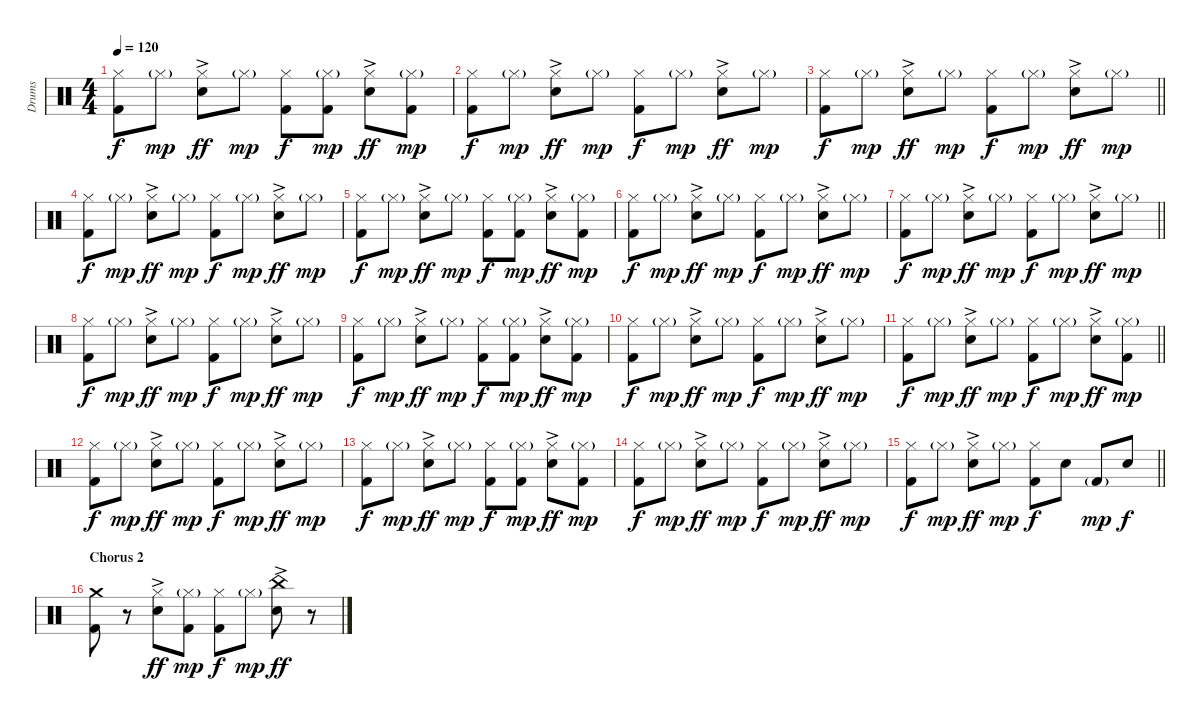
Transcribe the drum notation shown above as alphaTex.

\track ("Drums" "Drums") {instrument percussion}
\staff {score}
\articulation defaults
\ts (4 4)
\tempo 120
\clef neutral
\ks c
("Hi-Hat (closed)" "Kick (hit) 2").8{dy f} "Hi-Hat (closed)"{g}.8{dy mp} ("Hi-Hat (closed)" "Snare (hit) 2"{ac}).8{dy ff} "Hi-Hat (closed)"{g}.8{dy mp} ("Hi-Hat (closed)" "Kick (hit) 2").8{dy f} ("Hi-Hat (closed)"{g} "Kick (hit) 2").8{dy mp} ("Hi-Hat (closed)" "Snare (hit) 2"{ac}).8{dy ff} ("Hi-Hat (closed)"{g} "Kick (hit) 2").8{dy mp} |
("Hi-Hat (closed)" "Kick (hit) 2").8{dy f} "Hi-Hat (closed)"{g}.8{dy mp} ("Hi-Hat (closed)" "Snare (hit) 2"{ac}).8{dy ff} "Hi-Hat (closed)"{g}.8{dy mp} ("Hi-Hat (closed)" "Kick (hit) 2").8{dy f} "Hi-Hat (closed)"{g}.8{dy mp} ("Hi-Hat (closed)" "Snare (hit) 2"{ac}).8{dy ff} "Hi-Hat (closed)"{g}.8{dy mp} |
\barLineRight lightlight
("Hi-Hat (closed)" "Kick (hit) 2").8{dy f} "Hi-Hat (closed)"{g}.8{dy mp} ("Hi-Hat (closed)" "Snare (hit) 2"{ac}).8{dy ff} "Hi-Hat (closed)"{g}.8{dy mp} ("Hi-Hat (closed)" "Kick (hit) 2").8{dy f} "Hi-Hat (closed)"{g}.8{dy mp} ("Hi-Hat (closed)" "Snare (hit) 2"{ac}).8{dy ff} "Hi-Hat (closed)"{g}.8{dy mp} |
("Hi-Hat (closed)" "Kick (hit) 2").8{dy f} "Hi-Hat (closed)"{g}.8{dy mp} ("Hi-Hat (closed)" "Snare (hit) 2"{ac}).8{dy ff} "Hi-Hat (closed)"{g}.8{dy mp} ("Hi-Hat (closed)" "Kick (hit) 2").8{dy f} "Hi-Hat (closed)"{g}.8{dy mp} ("Hi-Hat (closed)" "Snare (hit) 2"{ac}).8{dy ff} "Hi-Hat (closed)"{g}.8{dy mp} |
("Hi-Hat (closed)" "Kick (hit) 2").8{dy f} "Hi-Hat (closed)"{g}.8{dy mp} ("Hi-Hat (closed)" "Snare (hit) 2"{ac}).8{dy ff} "Hi-Hat (closed)"{g}.8{dy mp} ("Hi-Hat (closed)" "Kick (hit) 2").8{dy f} ("Hi-Hat (closed)"{g} "Kick (hit) 2").8{dy mp} ("Hi-Hat (closed)" "Snare (hit) 2"{ac}).8{dy ff} ("Hi-Hat (closed)"{g} "Kick (hit) 2").8{dy mp} |
("Hi-Hat (closed)" "Kick (hit) 2").8{dy f} "Hi-Hat (closed)"{g}.8{dy mp} ("Hi-Hat (closed)" "Snare (hit) 2"{ac}).8{dy ff} "Hi-Hat (closed)"{g}.8{dy mp} ("Hi-Hat (closed)" "Kick (hit) 2").8{dy f} "Hi-Hat (closed)"{g}.8{dy mp} ("Hi-Hat (closed)" "Snare (hit) 2"{ac}).8{dy ff} "Hi-Hat (closed)"{g}.8{dy mp} |
\barLineRight lightlight
("Hi-Hat (closed)" "Kick (hit) 2").8{dy f} "Hi-Hat (closed)"{g}.8{dy mp} ("Hi-Hat (closed)" "Snare (hit) 2"{ac}).8{dy ff} "Hi-Hat (closed)"{g}.8{dy mp} ("Hi-Hat (closed)" "Kick (hit) 2").8{dy f} "Hi-Hat (closed)"{g}.8{dy mp} ("Hi-Hat (closed)" "Snare (hit) 2"{ac}).8{dy ff} "Hi-Hat (closed)"{g}.8{dy mp} |
("Hi-Hat (closed)" "Kick (hit) 2").8{dy f} "Hi-Hat (closed)"{g}.8{dy mp} ("Hi-Hat (closed)" "Snare (hit) 2"{ac}).8{dy ff} "Hi-Hat (closed)"{g}.8{dy mp} ("Hi-Hat (closed)" "Kick (hit) 2").8{dy f} "Hi-Hat (closed)"{g}.8{dy mp} ("Hi-Hat (closed)" "Snare (hit) 2"{ac}).8{dy ff} "Hi-Hat (closed)"{g}.8{dy mp} |
("Hi-Hat (closed)" "Kick (hit) 2").8{dy f} "Hi-Hat (closed)"{g}.8{dy mp} ("Hi-Hat (closed)" "Snare (hit) 2"{ac}).8{dy ff} "Hi-Hat (closed)"{g}.8{dy mp} ("Hi-Hat (closed)" "Kick (hit) 2").8{dy f} ("Hi-Hat (closed)"{g} "Kick (hit) 2").8{dy mp} ("Hi-Hat (closed)" "Snare (hit) 2"{ac}).8{dy ff} ("Hi-Hat (closed)"{g} "Kick (hit) 2").8{dy mp} |
("Hi-Hat (closed)" "Kick (hit) 2").8{dy f} "Hi-Hat (closed)"{g}.8{dy mp} ("Hi-Hat (closed)" "Snare (hit) 2"{ac}).8{dy ff} "Hi-Hat (closed)"{g}.8{dy mp} ("Hi-Hat (closed)" "Kick (hit) 2").8{dy f} "Hi-Hat (closed)"{g}.8{dy mp} ("Hi-Hat (closed)" "Snare (hit) 2"{ac}).8{dy ff} "Hi-Hat (closed)"{g}.8{dy mp} |
\barLineRight lightlight
("Hi-Hat (closed)" "Kick (hit) 2").8{dy f} "Hi-Hat (closed)"{g}.8{dy mp} ("Hi-Hat (closed)" "Snare (hit) 2"{ac}).8{dy ff} "Hi-Hat (closed)"{g}.8{dy mp} ("Hi-Hat (closed)" "Kick (hit) 2").8{dy f} "Hi-Hat (closed)"{g}.8{dy mp} ("Hi-Hat (closed)" "Snare (hit) 2"{ac}).8{dy ff} ("Hi-Hat (closed)"{g} "Kick (hit) 2").8{dy mp} |
("Hi-Hat (closed)" "Kick (hit) 2").8{dy f} "Hi-Hat (closed)"{g}.8{dy mp} ("Hi-Hat (closed)" "Snare (hit) 2"{ac}).8{dy ff} "Hi-Hat (closed)"{g}.8{dy mp} ("Hi-Hat (closed)" "Kick (hit) 2").8{dy f} "Hi-Hat (closed)"{g}.8{dy mp} ("Hi-Hat (closed)" "Snare (hit) 2"{ac}).8{dy ff} "Hi-Hat (closed)"{g}.8{dy mp} |
("Hi-Hat (closed)" "Kick (hit) 2").8{dy f} "Hi-Hat (closed)"{g}.8{dy mp} ("Hi-Hat (closed)" "Snare (hit) 2"{ac}).8{dy ff} "Hi-Hat (closed)"{g}.8{dy mp} ("Hi-Hat (closed)" "Kick (hit) 2").8{dy f} ("Hi-Hat (closed)"{g} "Kick (hit) 2").8{dy mp} ("Hi-Hat (closed)" "Snare (hit) 2"{ac}).8{dy ff} ("Hi-Hat (closed)"{g} "Kick (hit) 2").8{dy mp} |
("Hi-Hat (closed)" "Kick (hit) 2").8{dy f} "Hi-Hat (closed)"{g}.8{dy mp} ("Hi-Hat (closed)" "Snare (hit) 2"{ac}).8{dy ff} "Hi-Hat (closed)"{g}.8{dy mp} ("Hi-Hat (closed)" "Kick (hit) 2").8{dy f} "Hi-Hat (closed)"{g}.8{dy mp} ("Hi-Hat (closed)" "Snare (hit) 2"{ac}).8{dy ff} "Hi-Hat (closed)"{g}.8{dy mp} |
\barLineRight lightlight
("Hi-Hat (closed)" "Kick (hit) 2").8{dy f} "Hi-Hat (closed)"{g}.8{dy mp} ("Hi-Hat (closed)" "Snare (hit) 2"{ac}).8{dy ff} "Hi-Hat (closed)"{g}.8{dy mp} ("Hi-Hat (closed)" "Kick (hit) 2").8{dy f} "Snare (hit) 2".8 "Kick (hit) 2"{g}.8{dy mp} "Snare (hit) 2".8{dy f} |
\section ("" "Chorus 2")
("Crash medium (hit)" "Kick (hit) 2").8 r.8 ("Hi-Hat (closed)" "Snare (hit) 2"{ac}).8{dy ff} ("Hi-Hat (closed)"{g} "Kick (hit) 2").8{dy mp} ("Hi-Hat (closed)" "Kick (hit) 2").8{dy f} "Hi-Hat (closed)"{g}.8{dy mp} ("China (hit)" "Snare (hit) 2"{ac}).8{dy ff} r.8
